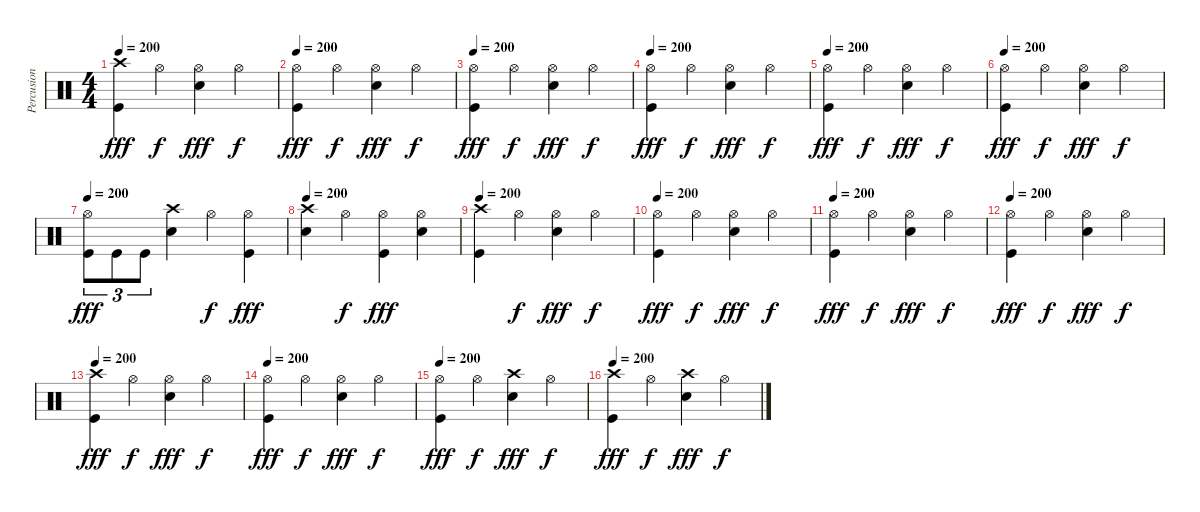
\track ("Percusion" "Percusion") {instrument percussion}
\staff {score}
\articulation defaults
\ts (4 4)
\tempo 200
\clef neutral
\ks c
("Crash high (hit)" "Kick (hit)").4{dy fff} "Hi-Hat (open)".4{dy f} ("Hi-Hat (open)" "Snare (hit) 2").4{dy fff} "Hi-Hat (open)".4{dy f} |
\tempo 200
("Hi-Hat (open)" "Kick (hit)").4{dy fff} "Hi-Hat (open)".4{dy f} ("Hi-Hat (open)" "Snare (hit) 2").4{dy fff} "Hi-Hat (open)".4{dy f} |
\tempo 200
("Hi-Hat (open)" "Kick (hit)").4{dy fff} "Hi-Hat (open)".4{dy f} ("Hi-Hat (open)" "Snare (hit) 2").4{dy fff} "Hi-Hat (open)".4{dy f} |
\tempo 200
("Hi-Hat (open)" "Kick (hit)").4{dy fff} "Hi-Hat (open)".4{dy f} ("Hi-Hat (open)" "Snare (hit) 2").4{dy fff} "Hi-Hat (open)".4{dy f} |
\tempo 200
("Hi-Hat (open)" "Kick (hit)").4{dy fff} "Hi-Hat (open)".4{dy f} ("Hi-Hat (open)" "Snare (hit) 2").4{dy fff} "Hi-Hat (open)".4{dy f} |
\tempo 200
("Hi-Hat (open)" "Kick (hit)").4{dy fff} "Hi-Hat (open)".4{dy f} ("Hi-Hat (open)" "Snare (hit) 2").4{dy fff} "Hi-Hat (open)".4{dy f} |
\tempo 200
("Hi-Hat (open)" "Kick (hit)").8{tu (3 2) dy fff} "Kick (hit)".8{tu (3 2)} "Kick (hit)".8{tu (3 2)} ("Crash high (hit)" "Snare (hit) 2").4 "Hi-Hat (open)".4{dy f} ("Hi-Hat (open)" "Kick (hit)").4{dy fff} |
\tempo 200
("Crash high (hit)" "Snare (hit) 2").4 "Hi-Hat (open)".4{dy f} ("Hi-Hat (open)" "Kick (hit)").4{dy fff} ("Hi-Hat (open)" "Snare (hit) 2").4 |
\tempo 200
("Crash high (hit)" "Kick (hit)").4 "Hi-Hat (open)".4{dy f} ("Hi-Hat (open)" "Snare (hit) 2").4{dy fff} "Hi-Hat (open)".4{dy f} |
\tempo 200
("Hi-Hat (open)" "Kick (hit)").4{dy fff} "Hi-Hat (open)".4{dy f} ("Hi-Hat (open)" "Snare (hit) 2").4{dy fff} "Hi-Hat (open)".4{dy f} |
\tempo 200
("Hi-Hat (open)" "Kick (hit)").4{dy fff} "Hi-Hat (open)".4{dy f} ("Hi-Hat (open)" "Snare (hit) 2").4{dy fff} "Hi-Hat (open)".4{dy f} |
\tempo 200
("Hi-Hat (open)" "Kick (hit)").4{dy fff} "Hi-Hat (open)".4{dy f} ("Hi-Hat (open)" "Snare (hit) 2").4{dy fff} "Hi-Hat (open)".4{dy f} |
\tempo 200
("Crash high (hit)" "Kick (hit)").4{dy fff} "Hi-Hat (open)".4{dy f} ("Hi-Hat (open)" "Snare (hit) 2").4{dy fff} "Hi-Hat (open)".4{dy f} |
\tempo 200
("Hi-Hat (open)" "Kick (hit)").4{dy fff} "Hi-Hat (open)".4{dy f} ("Hi-Hat (open)" "Snare (hit) 2").4{dy fff} "Hi-Hat (open)".4{dy f} |
\tempo 200
("Hi-Hat (open)" "Kick (hit)").4{dy fff} "Hi-Hat (open)".4{dy f} ("Crash high (hit)" "Snare (hit) 2").4{dy fff} "Hi-Hat (open)".4{dy f} |
\tempo 200
("Crash high (hit)" "Kick (hit)").4{dy fff} "Hi-Hat (open)".4{dy f} ("Crash high (hit)" "Snare (hit) 2").4{dy fff} "Hi-Hat (open)".4{dy f}
